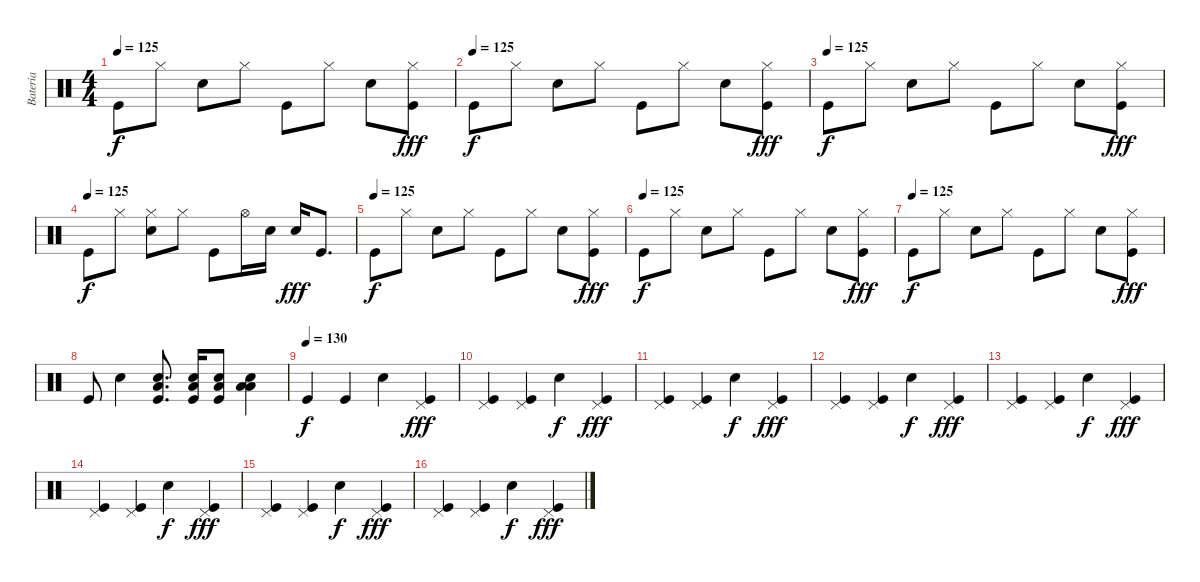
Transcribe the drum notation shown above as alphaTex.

\track ("Bateria" "Bateria") {instrument percussion}
\staff {score}
\articulation defaults
\ts (4 4)
\tempo 125
\clef neutral
\ks c "Kick (hit)".8{dy f} "Hi-Hat (closed)".8 "Snare (hit) 2".8 "Hi-Hat (closed)".8 "Kick (hit)".8 "Hi-Hat (closed)".8 "Snare (hit) 2".8
("Hi-Hat (closed)" "Kick (hit)").8{dy fff} |
\tempo (125)
"Kick (hit)".8{dy f} "Hi-Hat (closed)".8 "Snare (hit) 2".8 "Hi-Hat (closed)".8 "Kick (hit)".8 "Hi-Hat (closed)".8 "Snare (hit) 2".8 ("Hi-Hat (closed)" "Kick (hit)").8{dy fff} |
\tempo (125)
"Kick (hit)".8{dy f} "Hi-Hat (closed)".8 "Snare (hit) 2".8 "Hi-Hat (closed)".8 "Kick (hit)".8 "Hi-Hat (closed)".8 "Snare (hit) 2".8 ("Hi-Hat (closed)" "Kick (hit)").8{dy fff} |
\tempo (125)
"Kick (hit)".8{dy f} "Hi-Hat (closed)".8 ("Snare (hit) 2" "Hi-Hat (closed)").8 "Hi-Hat (closed)".8 "Kick (hit)".8 "Hi-Hat (open)".16 "Snare (hit) 2".16 "Snare (hit) 2".16{dy fff} "Kick (hit)".8{d} |
\tempo (125)
"Kick (hit)".8{dy f} "Hi-Hat (closed)".8 "Snare (hit) 2".8 "Hi-Hat (closed)".8 "Kick (hit)".8 "Hi-Hat (closed)".8 "Snare (hit) 2".8 ("Hi-Hat (closed)" "Kick (hit)").8{dy fff} |
\tempo (125)
"Kick (hit)".8{dy f} "Hi-Hat (closed)".8 "Snare (hit) 2".8 "Hi-Hat (closed)".8 "Kick (hit)".8 "Hi-Hat (closed)".8 "Snare (hit) 2".8 ("Hi-Hat (closed)" "Kick (hit)").8{dy fff} |
\tempo (125)
"Kick (hit)".8{dy f} "Hi-Hat (closed)".8 "Snare (hit) 2".8 "Hi-Hat (closed)".8 "Kick (hit)".8 "Hi-Hat (closed)".8 "Snare (hit) 2".8 ("Hi-Hat (closed)" "Kick (hit)").8{dy fff} |
"Kick (hit)".8 "Snare (hit) 2".4 ("Kick (hit)" "Snare (hit) 2" "Low Tom (hit)").8{d} ("Kick (hit)" "Snare (hit) 2" "Low Tom (hit)").16 ("Kick (hit)" "Snare (hit) 2" "Low Tom (hit)").8 ("Low Tom (hit)" "Snare (hit) 2" "Low Tom (hit)").4 |
\tempo (130)
"Kick (hit)".4{dy f} "Kick (hit)".4 "Snare (hit) 2".4 ("Pedal Hi-Hat (hit)" "Kick (hit)").4{dy fff} |
("Pedal Hi-Hat (hit)" "Kick (hit)").4 ("Pedal Hi-Hat (hit)" "Kick (hit)").4 "Snare (hit) 2".4{dy f} ("Pedal Hi-Hat (hit)" "Kick (hit)").4{dy fff} |
("Pedal Hi-Hat (hit)" "Kick (hit)").4 ("Pedal Hi-Hat (hit)" "Kick (hit)").4 "Snare (hit) 2".4{dy f} ("Pedal Hi-Hat (hit)" "Kick (hit)").4{dy fff} |
("Pedal Hi-Hat (hit)" "Kick (hit)").4 ("Pedal Hi-Hat (hit)" "Kick (hit)").4 "Snare (hit) 2".4{dy f} ("Pedal Hi-Hat (hit)" "Kick (hit)").4{dy fff} |
("Pedal Hi-Hat (hit)" "Kick (hit)").4 ("Pedal Hi-Hat (hit)" "Kick (hit)").4 "Snare (hit) 2".4{dy f} ("Pedal Hi-Hat (hit)" "Kick (hit)").4{dy fff} |
("Pedal Hi-Hat (hit)" "Kick (hit)").4 ("Pedal Hi-Hat (hit)" "Kick (hit)").4 "Snare (hit) 2".4{dy f} ("Pedal Hi-Hat (hit)" "Kick (hit)").4{dy fff} |
("Pedal Hi-Hat (hit)" "Kick (hit)").4 ("Pedal Hi-Hat (hit)" "Kick (hit)").4 "Snare (hit) 2".4{dy f} ("Pedal Hi-Hat (hit)" "Kick (hit)").4{dy fff} |
("Pedal Hi-Hat (hit)" "Kick (hit)").4 ("Pedal Hi-Hat (hit)" "Kick (hit)").4 "Snare (hit) 2".4{dy f} ("Pedal Hi-Hat (hit)" "Kick (hit)").4{dy fff}
